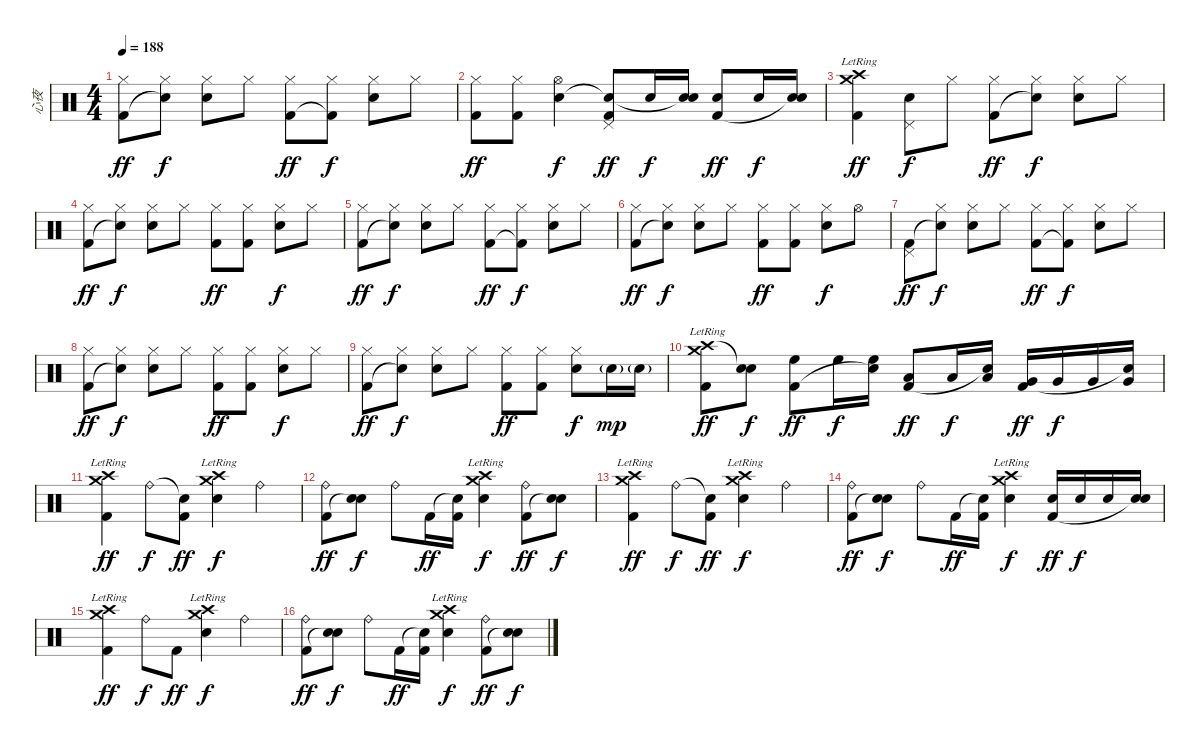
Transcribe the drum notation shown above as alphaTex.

\track ("心夜" "心夜") {instrument percussion}
\staff {score}
\articulation defaults
\ts (4 4)
\tempo 188
\clef neutral
\ks c
("Hi-Hat (closed)" "Kick (hit) 2").8{dy ff} ("Hi-Hat (closed)" "Snare (hit)"{t}).8{dy f} ("Hi-Hat (closed)" "Electric Snare (hit)").8 "Hi-Hat (closed)".8 ("Hi-Hat (closed)" "Kick (hit) 2").8{dy ff} ("Hi-Hat (closed)" "Kick (hit) 2"{t}).8{dy f} ("Hi-Hat (closed)" "Electric Snare (hit)").8 "Hi-Hat (closed)".8 |
("Hi-Hat (closed)" "Kick (hit) 2").8{dy ff} ("Hi-Hat (closed)" "Kick (hit) 2").8 ("Hi-Hat (open)" "Electric Snare (hit)").4{dy f} ("Pedal Hi-Hat (hit)" "Snare (hit)"{t} "Kick (hit) 2").8{dy ff} "Electric Snare (hit)".16{dy f} ("Electric Snare (hit)" "Snare (hit)"{t}).16 ("Electric Snare (hit)" "Kick (hit) 2").8{dy ff} "Electric Snare (hit)".16{dy f} ("Electric Snare (hit)" "Snare (hit)"{t}).16 |
("Crash medium (hit)"{lr} "Crash high (hit)"{lr} "Kick (hit) 2").4{dy ff} ("Pedal Hi-Hat (hit)" "Electric Snare (hit)").8{dy f} "Hi-Hat (closed)".8 ("Hi-Hat (closed)" "Kick (hit) 2").8{dy ff} ("Hi-Hat (closed)" "Snare (hit)"{t}).8{dy f} ("Hi-Hat (closed)" "Electric Snare (hit)").8 "Hi-Hat (closed)".8 |
("Hi-Hat (closed)" "Kick (hit) 2").8{dy ff} ("Hi-Hat (closed)" "Snare (hit)"{t}).8{dy f} ("Hi-Hat (closed)" "Electric Snare (hit)").8 "Hi-Hat (closed)".8 ("Hi-Hat (closed)" "Kick (hit) 2").8{dy ff} ("Hi-Hat (closed)" "Kick (hit) 2").8 ("Hi-Hat (closed)" "Electric Snare (hit)").8{dy f} "Hi-Hat (closed)".8 |
("Hi-Hat (closed)" "Kick (hit) 2").8{dy ff} ("Hi-Hat (closed)" "Snare (hit)"{t}).8{dy f} ("Hi-Hat (closed)" "Electric Snare (hit)").8 "Hi-Hat (closed)".8 ("Hi-Hat (closed)" "Kick (hit) 2").8{dy ff} ("Hi-Hat (closed)" "Kick (hit) 2"{t}).8{dy f} ("Hi-Hat (closed)" "Electric Snare (hit)").8 "Hi-Hat (closed)".8 |
("Hi-Hat (closed)" "Kick (hit) 2").8{dy ff} ("Hi-Hat (closed)" "Snare (hit)"{t}).8{dy f} ("Hi-Hat (closed)" "Electric Snare (hit)").8 "Hi-Hat (closed)".8 ("Hi-Hat (closed)" "Kick (hit) 2").8{dy ff} ("Hi-Hat (closed)" "Kick (hit) 2").8 ("Hi-Hat (closed)" "Electric Snare (hit)").8{dy f} "Hi-Hat (open)".8 |
("Pedal Hi-Hat (hit)" "Kick (hit) 2").8{dy ff} ("Hi-Hat (closed)" "Snare (hit)"{t}).8{dy f} ("Hi-Hat (closed)" "Electric Snare (hit)").8 "Hi-Hat (closed)".8 ("Hi-Hat (closed)" "Kick (hit) 2").8{dy ff} ("Hi-Hat (closed)" "Kick (hit) 2"{t}).8{dy f} ("Hi-Hat (closed)" "Electric Snare (hit)").8 "Hi-Hat (closed)".8 |
("Hi-Hat (closed)" "Kick (hit) 2").8{dy ff} ("Hi-Hat (closed)" "Snare (hit)"{t}).8{dy f} ("Hi-Hat (closed)" "Electric Snare (hit)").8 "Hi-Hat (closed)".8 ("Hi-Hat (closed)" "Kick (hit) 2").8{dy ff} ("Hi-Hat (closed)" "Kick (hit) 2").8 ("Hi-Hat (closed)" "Electric Snare (hit)").8{dy f} "Hi-Hat (closed)".8 |
("Hi-Hat (closed)" "Kick (hit) 2").8{dy ff} ("Hi-Hat (closed)" "Snare (hit)"{t}).8{dy f} ("Hi-Hat (closed)" "Electric Snare (hit)").8 "Hi-Hat (closed)".8 ("Hi-Hat (closed)" "Kick (hit) 2").8{dy ff} ("Hi-Hat (closed)" "Kick (hit) 2").8 ("Hi-Hat (closed)" "Electric Snare (hit)").8{dy f} "Electric Snare (hit)"{g}.16{dy mp} "Electric Snare (hit)"{g}.16 |
("Crash medium (hit)"{lr} "Crash high (hit)"{lr} "Kick (hit) 2").8{dy ff} ("Electric Snare (hit)" "Snare (hit)"{t}).8{dy f} ("High Floor Tom (hit)" "Kick (hit) 2").8{dy ff} "High Floor Tom (hit)".16{dy f} ("High Floor Tom (hit)" "Snare (hit)"{t}).16 ("Low Tom (hit)" "Kick (hit) 2").8{dy ff} "Low Tom (hit)".16{dy f} ("Low Tom (hit)" "Snare (hit)"{t}).16 ("Very Low Tom (hit)" "Kick (hit) 2").16{dy ff} "Very Low Tom (hit)".16{dy f} "Very Low Tom (hit)".16 ("Very Low Tom (hit)" "Snare (hit)"{t}).16 |
("Crash medium (hit)"{lr} "Crash high (hit)"{lr} "Kick (hit) 2").4{dy ff} "Ride (bell)".8{dy f} ("Snare (hit)"{t} "Kick (hit) 2").8{dy ff} ("Crash medium (hit)"{lr} "Crash high (hit)"{lr} "Electric Snare (hit)").4{dy f} "Ride (bell)".4 |
("Ride (bell)" "Kick (hit) 2").8{dy ff} ("Electric Snare (hit)" "Snare (hit)"{t}).8{dy f} "Ride (bell)".8 "Kick (hit) 2".16{dy ff} ("Snare (hit)"{t} "Kick (hit) 2").16 ("Crash medium (hit)"{lr} "Electric Snare (hit)" "Crash high (hit)"{lr}).4{dy f} ("Ride (bell)" "Kick (hit) 2").8{dy ff} ("Electric Snare (hit)" "Snare (hit)"{t}).8{dy f} |
("Crash medium (hit)"{lr} "Crash high (hit)"{lr} "Kick (hit) 2").4{dy ff} "Ride (bell)".8{dy f} ("Snare (hit)"{t} "Kick (hit) 2").8{dy ff} ("Crash medium (hit)"{lr} "Electric Snare (hit)" "Crash high (hit)"{lr}).4{dy f} "Ride (bell)".4 |
("Ride (bell)" "Kick (hit) 2").8{dy ff} ("Electric Snare (hit)" "Snare (hit)"{t}).8{dy f} "Ride (bell)".8 "Kick (hit) 2".16{dy ff} ("Snare (hit)"{t} "Kick (hit) 2").16 ("Crash medium (hit)"{lr} "Electric Snare (hit)" "Crash high (hit)"{lr}).4{dy f} ("Electric Snare (hit)" "Kick (hit) 2").16{dy ff} "Electric Snare (hit)".16{dy f} "Electric Snare (hit)".16 ("Electric Snare (hit)" "Snare (hit)"{t}).16 |
("Crash medium (hit)"{lr} "Crash high (hit)"{lr} "Kick (hit) 2").4{dy ff} "Ride (bell)".8{dy f} "Kick (hit) 2".8{dy ff} ("Crash medium (hit)"{lr} "Electric Snare (hit)" "Crash high (hit)"{lr}).4{dy f} "Ride (bell)".4 |
("Ride (bell)" "Kick (hit) 2").8{dy ff} ("Electric Snare (hit)" "Snare (hit)"{t}).8{dy f} "Ride (bell)".8 "Kick (hit) 2".16{dy ff} ("Snare (hit)"{t} "Kick (hit) 2").16 ("Crash medium (hit)"{lr} "Electric Snare (hit)" "Crash high (hit)"{lr}).4{dy f} ("Ride (bell)" "Kick (hit) 2").8{dy ff} ("Electric Snare (hit)" "Snare (hit)"{t}).8{dy f}
